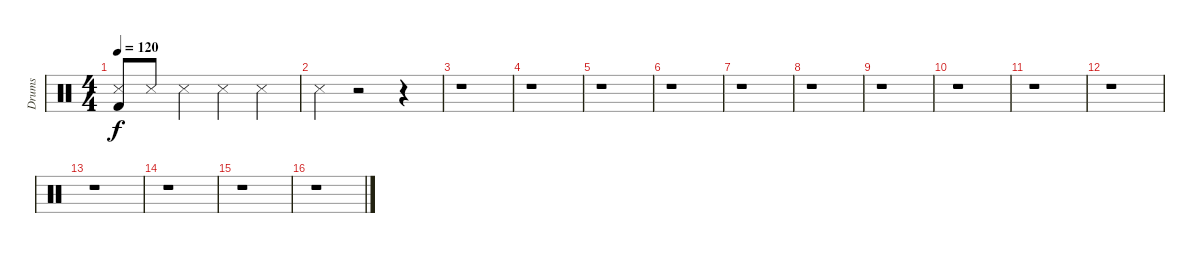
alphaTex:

\track ("Drums" "Drums") {instrument percussion}
\staff {score}
\articulation defaults
\ts (4 4)
\tempo 120
\clef neutral
\ks c
("Snare (side stick) 3" "Kick (hit) 2").8{dy f} "Snare (side stick) 3".8 "Snare (side stick) 3".4 "Snare (side stick) 3".4 "Snare (side stick) 3".4 |
"Snare (side stick) 3".4 r.2 r.4 |
r.1 |
r.1 |
r.1 |
r.1 |
r.1 |
r.1 |
r.1 |
r.1 |
r.1 |
r.1 |
r.1 |
r.1 |
r.1 |
r.1
